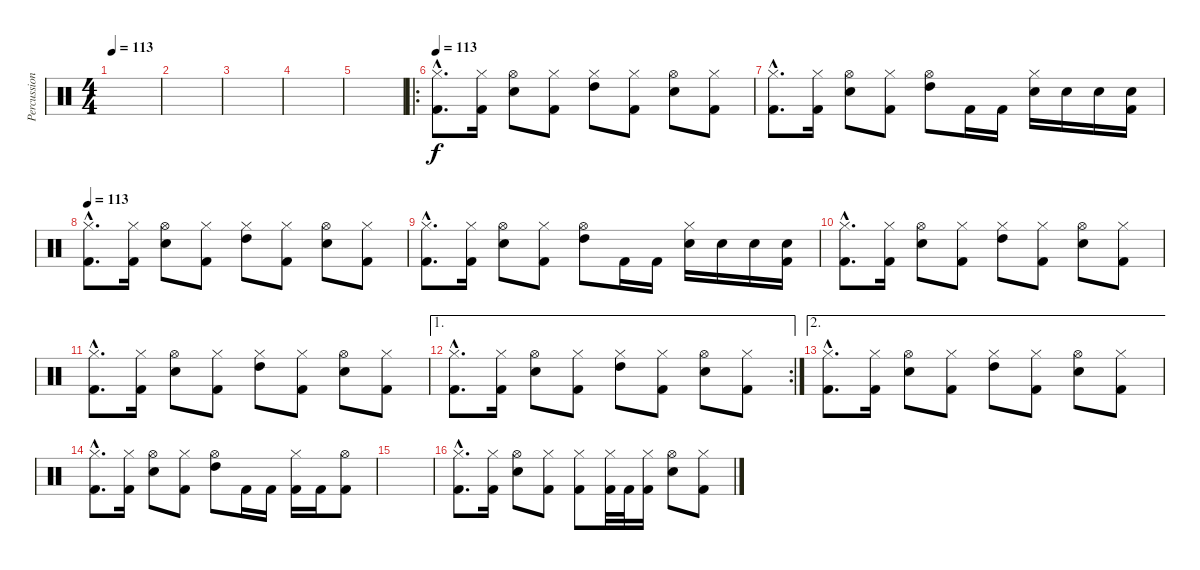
\track ("Percussion" "Percussion") {instrument percussion}
\staff {score}
\articulation defaults
\ts (4 4)
\tempo 113
\clef neutral
\ks c
|
|
|
|
|
\ro
\tempo 113
("Hi-Hat (closed)"{hac} "Kick (hit) 2"{hac}).8{d} ("Hi-Hat (closed)" "Kick (hit) 2").16 ("Hi-Hat (open)" "Snare (hit) 2").8 ("Hi-Hat (closed)" "Kick (hit) 2").8 ("Hi-Hat (closed)" "High Tom (hit)").8 ("Hi-Hat (closed)" "Kick (hit) 2").8 ("Hi-Hat (open)" "Snare (hit) 2").8 ("Hi-Hat (closed)" "Kick (hit) 2").8 |
("Hi-Hat (closed)"{hac} "Kick (hit) 2"{hac}).8{d} ("Hi-Hat (closed)" "Kick (hit) 2").16 ("Hi-Hat (open)" "Snare (hit) 2").8 ("Hi-Hat (closed)" "Kick (hit) 2").8 ("Hi-Hat (open)" "High Tom (hit)").8 "Kick (hit) 2".16 "Kick (hit) 2".16 ("Hi-Hat (closed)" "Snare (hit) 2").16 "Snare (hit) 2".16 "Snare (hit) 2".16 ("Snare (hit) 2" "Kick (hit) 2").16 |
\tempo 113
("Hi-Hat (closed)"{hac} "Kick (hit) 2"{hac}).8{d} ("Hi-Hat (closed)" "Kick (hit) 2").16 ("Hi-Hat (open)" "Snare (hit) 2").8 ("Hi-Hat (closed)" "Kick (hit) 2").8 ("Hi-Hat (closed)" "High Tom (hit)").8 ("Hi-Hat (closed)" "Kick (hit) 2").8 ("Hi-Hat (open)" "Snare (hit) 2").8 ("Hi-Hat (closed)" "Kick (hit) 2").8 |
("Hi-Hat (closed)"{hac} "Kick (hit) 2"{hac}).8{d} ("Hi-Hat (closed)" "Kick (hit) 2").16 ("Hi-Hat (open)" "Snare (hit) 2").8 ("Hi-Hat (closed)" "Kick (hit) 2").8 ("Hi-Hat (open)" "High Tom (hit)").8 "Kick (hit) 2".16 "Kick (hit) 2".16 ("Hi-Hat (closed)" "Snare (hit) 2").16 "Snare (hit) 2".16 "Snare (hit) 2".16 ("Snare (hit) 2" "Kick (hit) 2").16 |
("Hi-Hat (closed)"{hac} "Kick (hit) 2"{hac}).8{d} ("Hi-Hat (closed)" "Kick (hit) 2").16 ("Hi-Hat (open)" "Snare (hit) 2").8 ("Hi-Hat (closed)" "Kick (hit) 2").8 ("Hi-Hat (closed)" "High Tom (hit)").8 ("Hi-Hat (closed)" "Kick (hit) 2").8 ("Hi-Hat (open)" "Snare (hit) 2").8 ("Hi-Hat (closed)" "Kick (hit) 2").8 |
("Hi-Hat (closed)"{hac} "Kick (hit) 2"{hac}).8{d} ("Hi-Hat (closed)" "Kick (hit) 2").16 ("Hi-Hat (open)" "Snare (hit) 2").8 ("Hi-Hat (closed)" "Kick (hit) 2").8 ("Hi-Hat (closed)" "High Tom (hit)").8 ("Hi-Hat (closed)" "Kick (hit) 2").8 ("Hi-Hat (open)" "Snare (hit) 2").8 ("Hi-Hat (closed)" "Kick (hit) 2").8 |
\ae 1
\rc 2
("Hi-Hat (closed)"{hac} "Kick (hit) 2"{hac}).8{d} ("Hi-Hat (closed)" "Kick (hit) 2").16 ("Hi-Hat (open)" "Snare (hit) 2").8 ("Hi-Hat (closed)" "Kick (hit) 2").8 ("Hi-Hat (closed)" "High Tom (hit)").8 ("Hi-Hat (closed)" "Kick (hit) 2").8 ("Hi-Hat (open)" "Snare (hit) 2").8 ("Hi-Hat (closed)" "Kick (hit) 2").8 |
\ae 2
("Hi-Hat (closed)"{hac} "Kick (hit) 2"{hac}).8{d} ("Hi-Hat (closed)" "Kick (hit) 2").16 ("Hi-Hat (open)" "Snare (hit) 2").8 ("Hi-Hat (closed)" "Kick (hit) 2").8 ("Hi-Hat (closed)" "High Tom (hit)").8 ("Hi-Hat (closed)" "Kick (hit) 2").8 ("Hi-Hat (open)" "Snare (hit) 2").8 ("Hi-Hat (closed)" "Kick (hit) 2").8 |
("Hi-Hat (closed)"{hac} "Kick (hit) 2"{hac}).8{d} ("Hi-Hat (closed)" "Kick (hit) 2").16 ("Hi-Hat (open)" "Snare (hit) 2").8 ("Hi-Hat (closed)" "Kick (hit) 2").8 ("Hi-Hat (open)" "High Tom (hit)").8 "Kick (hit) 2".16 "Kick (hit) 2".16 ("Hi-Hat (closed)" "Kick (hit) 2").16 "Kick (hit) 2".16 ("Hi-Hat (open)" "Kick (hit) 2").8 |
|
("Hi-Hat (closed)"{hac} "Kick (hit) 2"{hac}).8{d} ("Hi-Hat (closed)" "Kick (hit) 2").16 ("Hi-Hat (open)" "Snare (hit) 2").8 ("Hi-Hat (closed)" "Kick (hit) 2").8 ("Hi-Hat (closed)" "Kick (hit) 2").8 ("Hi-Hat (closed)" "Kick (hit) 2").32 "Kick (hit) 2".32 ("Hi-Hat (closed)" "Kick (hit) 2").16 ("Hi-Hat (open)" "Snare (hit) 2").8 ("Hi-Hat (closed)" "Kick (hit) 2").8
